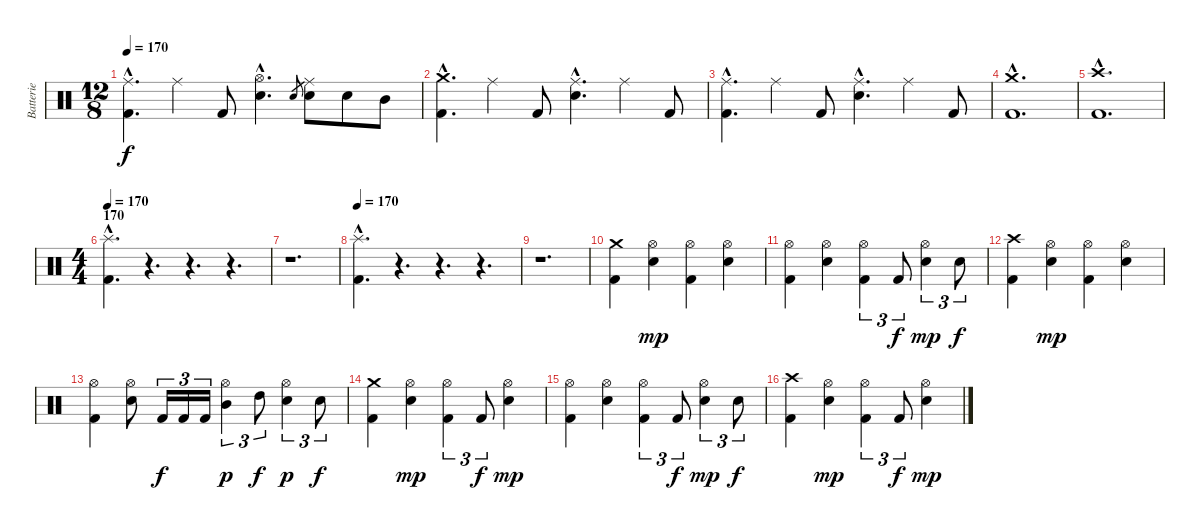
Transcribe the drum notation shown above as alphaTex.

\track ("Batterie" "Batterie") {instrument percussion}
\staff {score}
\articulation defaults
\ts (12 8)
\tempo 170
\clef neutral
\ks c
("Ride (middle)"{hac} "Kick (hit) 2"{hac}).4{d dy f} "Ride (middle)".4 "Kick (hit) 2".8 ("Hi-Hat (open)"{hac} "Electric Snare (hit)"{hac}).4{d} "Electric Snare (hit)".8{gr} ("Ride (middle)" "Electric Snare (hit)").8 "Electric Snare (hit)".8 "Mid Tom (hit)".8 |
("Crash medium (hit)"{hac} "Kick (hit) 2"{hac}).4{d} "Ride (middle)".4 "Kick (hit) 2".8 ("Ride (middle)"{hac} "Electric Snare (hit)"{hac}).4{d} "Ride (middle)".4 "Kick (hit) 2".8 |
("Ride (middle)"{hac} "Kick (hit) 2"{hac}).4{d} "Ride (middle)".4 "Kick (hit) 2".8 ("Ride (middle)"{hac} "Electric Snare (hit)"{hac}).4{d} "Ride (middle)".4 "Kick (hit) 2".8 |
("Crash medium (hit)"{hac} "Kick (hit) 2"{hac}).1{d} |
("Crash high (hit)"{hac} "Kick (hit) 2"{hac}).1{d} |
\ts (4 4)
\section ("" "170")
\tempo 170
("Splash (hit)"{hac} "Kick (hit) 2"{hac}).4{d} r.4{d} r.4{d} r.4{d} |
r.1{d} |
\tempo 170
("Splash (hit)"{hac} "Kick (hit) 2"{hac}).4{d} r.4{d} r.4{d} r.4{d} |
r.1{d} |
("Crash medium (hit)" "Kick (hit) 2").4 ("Hi-Hat (open)" "Electric Snare (hit)").4{dy mp} ("Hi-Hat (open)" "Kick (hit) 2").4 ("Hi-Hat (open)" "Electric Snare (hit)").4 |
("Hi-Hat (open)" "Kick (hit) 2").4 ("Hi-Hat (open)" "Electric Snare (hit)").4 ("Hi-Hat (open)" "Kick (hit) 2").4{tu (3 2)} "Kick (hit) 2".8{tu (3 2) dy f} ("Hi-Hat (open)" "Electric Snare (hit)").4{tu (3 2) dy mp} "Electric Snare (hit)".8{tu (3 2) dy f} |
("Crash high (hit)" "Kick (hit) 2").4 ("Hi-Hat (open)" "Electric Snare (hit)").4{dy mp} ("Hi-Hat (open)" "Kick (hit) 2").4 ("Hi-Hat (open)" "Electric Snare (hit)").4 |
("Hi-Hat (open)" "Kick (hit) 2").4 ("Hi-Hat (open)" "Electric Snare (hit)").8 "Kick (hit) 2".16{tu (3 2) dy f} "Kick (hit) 2".16{tu (3 2)} "Kick (hit) 2".16{tu (3 2)} ("Hi-Hat (open)" "Mid Tom (hit)").4{tu (3 2) dy p} "High Tom (hit)".8{tu (3 2) dy f} ("Hi-Hat (open)" "Electric Snare (hit)").4{tu (3 2) dy p} "Electric Snare (hit)".8{tu (3 2) dy f} |
("Crash medium (hit)" "Kick (hit) 2").4 ("Hi-Hat (open)" "Electric Snare (hit)").4{dy mp} ("Hi-Hat (open)" "Kick (hit) 2").4{tu (3 2)} "Kick (hit) 2".8{tu (3 2) dy f} ("Hi-Hat (open)" "Electric Snare (hit)").4{dy mp} |
("Hi-Hat (open)" "Kick (hit) 2").4 ("Hi-Hat (open)" "Electric Snare (hit)").4 ("Hi-Hat (open)" "Kick (hit) 2").4{tu (3 2)} "Kick (hit) 2".8{tu (3 2) dy f} ("Hi-Hat (open)" "Electric Snare (hit)").4{tu (3 2) dy mp} "Electric Snare (hit)".8{tu (3 2) dy f} |
("Crash high (hit)" "Kick (hit) 2").4 ("Hi-Hat (open)" "Electric Snare (hit)").4{dy mp} ("Hi-Hat (open)" "Kick (hit) 2").4{tu (3 2)} "Kick (hit) 2".8{tu (3 2) dy f} ("Hi-Hat (open)" "Electric Snare (hit)").4{dy mp}
